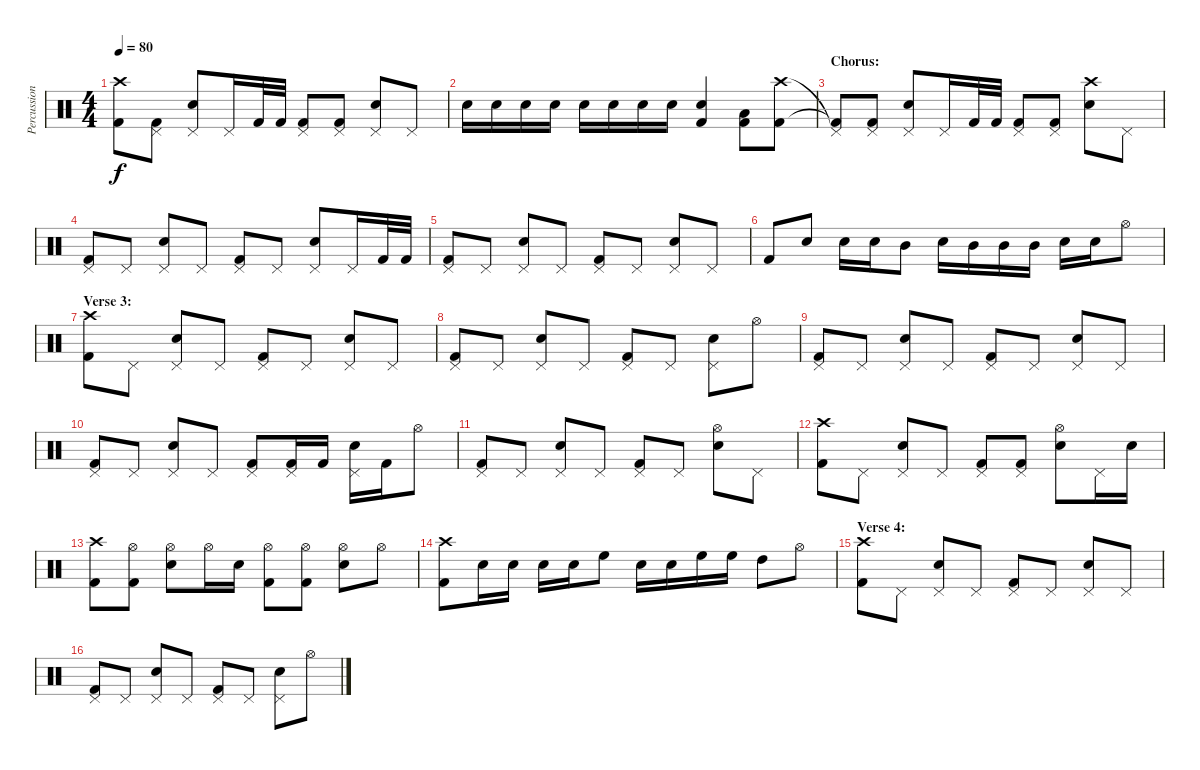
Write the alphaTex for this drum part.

\track ("Percussion" "Percussion") {instrument percussion}
\staff {score}
\articulation defaults
\ts (4 4)
\tempo 80
\clef neutral
\ks c
("Crash high (hit)" "Kick (hit) 2").8{dy f} ("Pedal Hi-Hat (hit)" "Kick (hit) 2").8 ("Pedal Hi-Hat (hit)" "Electric Snare (hit)").8 "Pedal Hi-Hat (hit)".16 "Kick (hit) 2".32 "Kick (hit) 2".32 ("Pedal Hi-Hat (hit)" "Kick (hit) 2").8 ("Pedal Hi-Hat (hit)" "Kick (hit) 2").8 ("Pedal Hi-Hat (hit)" "Electric Snare (hit)").8 "Pedal Hi-Hat (hit)".8 |
"Electric Snare (hit)".16 "Electric Snare (hit)".16 "Electric Snare (hit)".16 "Electric Snare (hit)".16 "Electric Snare (hit)".16 "Electric Snare (hit)".16 "Electric Snare (hit)".16 "Electric Snare (hit)".16 ("Electric Snare (hit)" "Kick (hit) 2").4 ("Low Tom (hit)" "Kick (hit) 2").8 ("Crash high (hit)" "Kick (hit) 2").8 |
\section ("" "Chorus:")
("Pedal Hi-Hat (hit)"{t} "Kick (hit) 2"{t}).8 ("Pedal Hi-Hat (hit)" "Kick (hit) 2").8 ("Pedal Hi-Hat (hit)" "Electric Snare (hit)").8 "Pedal Hi-Hat (hit)".16 "Kick (hit) 2".32 "Kick (hit) 2".32 ("Pedal Hi-Hat (hit)" "Kick (hit) 2").8 ("Pedal Hi-Hat (hit)" "Kick (hit) 2").8 ("Crash high (hit)" "Electric Snare (hit)").8 "Pedal Hi-Hat (hit)".8 |
("Pedal Hi-Hat (hit)" "Kick (hit) 2").8 "Pedal Hi-Hat (hit)".8 ("Pedal Hi-Hat (hit)" "Electric Snare (hit)").8 "Pedal Hi-Hat (hit)".8 ("Pedal Hi-Hat (hit)" "Kick (hit) 2").8 "Pedal Hi-Hat (hit)".8 ("Pedal Hi-Hat (hit)" "Electric Snare (hit)").8 "Pedal Hi-Hat (hit)".16 "Kick (hit) 2".32 "Kick (hit) 2".32 |
("Pedal Hi-Hat (hit)" "Kick (hit) 2").8 "Pedal Hi-Hat (hit)".8 ("Pedal Hi-Hat (hit)" "Electric Snare (hit)").8 "Pedal Hi-Hat (hit)".8 ("Pedal Hi-Hat (hit)" "Kick (hit) 2").8 "Pedal Hi-Hat (hit)".8 ("Pedal Hi-Hat (hit)" "Electric Snare (hit)").8 "Pedal Hi-Hat (hit)".8 |
"Kick (hit) 2".8 "Electric Snare (hit)".8 "Electric Snare (hit)".16 "Electric Snare (hit)".16 "Mid Tom (hit)".8 "Electric Snare (hit)".16 "Mid Tom (hit)".16 "Mid Tom (hit)".16 "Mid Tom (hit)".16 "Electric Snare (hit)".16 "Electric Snare (hit)".16 "Hi-Hat (open)".8 |
\section ("" "Verse 3:")
("Crash high (hit)" "Kick (hit) 2").8 "Pedal Hi-Hat (hit)".8 ("Pedal Hi-Hat (hit)" "Electric Snare (hit)").8 "Pedal Hi-Hat (hit)".8 ("Pedal Hi-Hat (hit)" "Kick (hit) 2").8 "Pedal Hi-Hat (hit)".8 ("Pedal Hi-Hat (hit)" "Electric Snare (hit)").8 "Pedal Hi-Hat (hit)".8 |
("Pedal Hi-Hat (hit)" "Kick (hit) 2").8 "Pedal Hi-Hat (hit)".8 ("Pedal Hi-Hat (hit)" "Electric Snare (hit)").8 "Pedal Hi-Hat (hit)".8 ("Pedal Hi-Hat (hit)" "Kick (hit) 2").8 "Pedal Hi-Hat (hit)".8 ("Pedal Hi-Hat (hit)" "Electric Snare (hit)").8 "Hi-Hat (open)".8 |
("Pedal Hi-Hat (hit)" "Kick (hit) 2").8 "Pedal Hi-Hat (hit)".8 ("Pedal Hi-Hat (hit)" "Electric Snare (hit)").8 "Pedal Hi-Hat (hit)".8 ("Pedal Hi-Hat (hit)" "Kick (hit) 2").8 "Pedal Hi-Hat (hit)".8 ("Pedal Hi-Hat (hit)" "Electric Snare (hit)").8 "Pedal Hi-Hat (hit)".8 |
("Pedal Hi-Hat (hit)" "Kick (hit) 2").8 "Pedal Hi-Hat (hit)".8 ("Pedal Hi-Hat (hit)" "Electric Snare (hit)").8 "Pedal Hi-Hat (hit)".8 ("Pedal Hi-Hat (hit)" "Kick (hit) 2").8 ("Pedal Hi-Hat (hit)" "Kick (hit) 2").16 "Kick (hit) 2".16 ("Pedal Hi-Hat (hit)" "Electric Snare (hit)").16 "Kick (hit) 2".16 "Hi-Hat (open)".8 |
("Pedal Hi-Hat (hit)" "Kick (hit) 2").8 "Pedal Hi-Hat (hit)".8 ("Pedal Hi-Hat (hit)" "Electric Snare (hit)").8 "Pedal Hi-Hat (hit)".8 ("Pedal Hi-Hat (hit)" "Kick (hit) 2").8 "Pedal Hi-Hat (hit)".8 ("Hi-Hat (open)" "Electric Snare (hit)").8 "Pedal Hi-Hat (hit)".8 |
("Crash high (hit)" "Kick (hit) 2").8 "Pedal Hi-Hat (hit)".8 ("Pedal Hi-Hat (hit)" "Electric Snare (hit)").8 "Pedal Hi-Hat (hit)".8 ("Pedal Hi-Hat (hit)" "Kick (hit) 2").8 ("Pedal Hi-Hat (hit)" "Kick (hit) 2").8 ("Hi-Hat (open)" "Electric Snare (hit)").8 "Pedal Hi-Hat (hit)".16 "Electric Snare (hit)".16 |
("Crash high (hit)" "Kick (hit) 2").8 ("Hi-Hat (open)" "Kick (hit) 2").8 ("Hi-Hat (open)" "Electric Snare (hit)").8 "Hi-Hat (open)".16 "Electric Snare (hit)".16 ("Hi-Hat (open)" "Kick (hit) 2").8 ("Hi-Hat (open)" "Kick (hit) 2").8 ("Hi-Hat (open)" "Electric Snare (hit)").8 "Hi-Hat (open)".8 |
("Crash high (hit)" "Kick (hit) 2").8 "Electric Snare (hit)".16 "Electric Snare (hit)".16 "Electric Snare (hit)".16 "Electric Snare (hit)".16 "High Floor Tom (hit)".8 "Electric Snare (hit)".16 "Electric Snare (hit)".16 "High Floor Tom (hit)".16 "High Floor Tom (hit)".16 "High Tom (hit)".8 "Hi-Hat (open)".8 |
\section ("" "Verse 4:")
("Crash high (hit)" "Kick (hit) 2").8 "Pedal Hi-Hat (hit)".8 ("Pedal Hi-Hat (hit)" "Electric Snare (hit)").8 "Pedal Hi-Hat (hit)".8 ("Pedal Hi-Hat (hit)" "Kick (hit) 2").8 "Pedal Hi-Hat (hit)".8 ("Pedal Hi-Hat (hit)" "Electric Snare (hit)").8 "Pedal Hi-Hat (hit)".8 |
("Pedal Hi-Hat (hit)" "Kick (hit) 2").8 "Pedal Hi-Hat (hit)".8 ("Pedal Hi-Hat (hit)" "Electric Snare (hit)").8 "Pedal Hi-Hat (hit)".8 ("Pedal Hi-Hat (hit)" "Kick (hit) 2").8 "Pedal Hi-Hat (hit)".8 ("Pedal Hi-Hat (hit)" "Electric Snare (hit)").8 "Hi-Hat (open)".8
